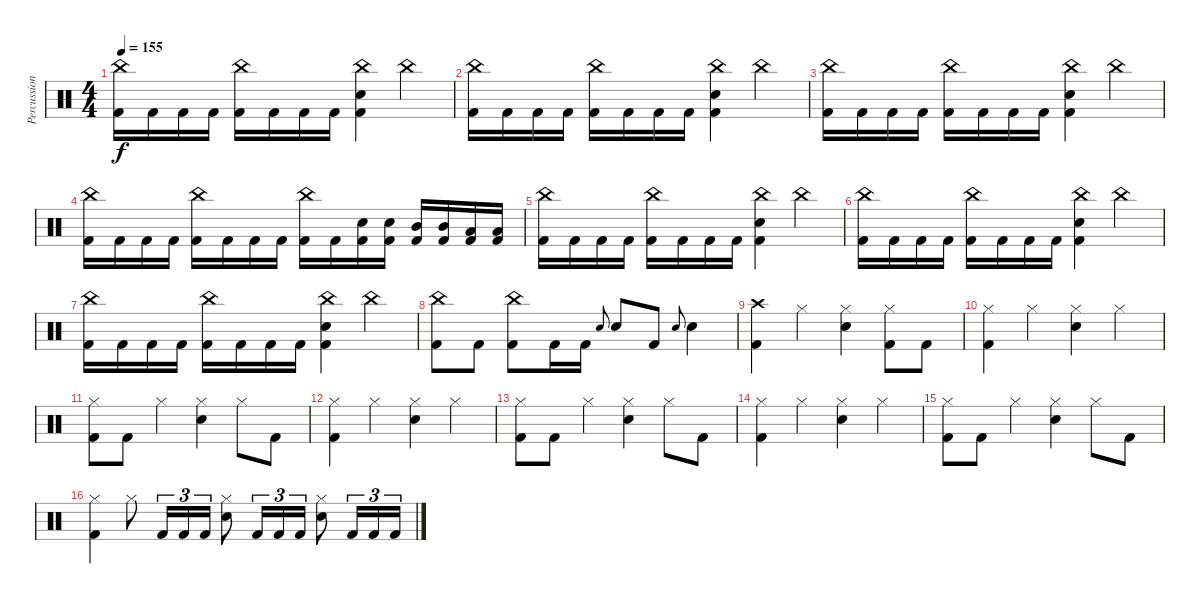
\track ("Percussion" "Percussion") {instrument percussion}
\staff {score}
\articulation defaults
\ts (4 4)
\tempo 155
\clef neutral
\ks c
("China (hit)" "Kick (hit) 2").16{dy f} "Kick (hit) 2".16 "Kick (hit) 2".16 "Kick (hit) 2".16 ("China (hit)" "Kick (hit) 2").16 "Kick (hit) 2".16 "Kick (hit) 2".16 "Kick (hit) 2".16 ("China (hit)" "Electric Snare (hit)" "Kick (hit) 2").4 "China (hit)".4 |
("China (hit)" "Kick (hit) 2").16 "Kick (hit) 2".16 "Kick (hit) 2".16 "Kick (hit) 2".16 ("China (hit)" "Kick (hit) 2").16 "Kick (hit) 2".16 "Kick (hit) 2".16 "Kick (hit) 2".16 ("China (hit)" "Electric Snare (hit)" "Kick (hit) 2").4 "China (hit)".4 |
("China (hit)" "Kick (hit) 2").16 "Kick (hit) 2".16 "Kick (hit) 2".16 "Kick (hit) 2".16 ("China (hit)" "Kick (hit) 2").16 "Kick (hit) 2".16 "Kick (hit) 2".16 "Kick (hit) 2".16 ("China (hit)" "Electric Snare (hit)" "Kick (hit) 2").4 "China (hit)".4 |
("China (hit)" "Kick (hit) 2").16 "Kick (hit) 2".16 "Kick (hit) 2".16 "Kick (hit) 2".16 ("China (hit)" "Kick (hit) 2").16 "Kick (hit) 2".16 "Kick (hit) 2".16 "Kick (hit) 2".16 ("China (hit)" "Kick (hit) 2").16 "Kick (hit) 2".16 ("Electric Snare (hit)" "Kick (hit) 2").16 ("Electric Snare (hit)" "Kick (hit) 2").16 ("Mid Tom (hit)" "Kick (hit) 2").16 ("Mid Tom (hit)" "Kick (hit) 2").16 ("Low Tom (hit)" "Kick (hit) 2").16 ("Low Tom (hit)" "Kick (hit) 2").16 |
("China (hit)" "Kick (hit) 2").16 "Kick (hit) 2".16 "Kick (hit) 2".16 "Kick (hit) 2".16 ("China (hit)" "Kick (hit) 2").16 "Kick (hit) 2".16 "Kick (hit) 2".16 "Kick (hit) 2".16 ("China (hit)" "Electric Snare (hit)" "Kick (hit) 2").4 "China (hit)".4 |
("China (hit)" "Kick (hit) 2").16 "Kick (hit) 2".16 "Kick (hit) 2".16 "Kick (hit) 2".16 ("China (hit)" "Kick (hit) 2").16 "Kick (hit) 2".16 "Kick (hit) 2".16 "Kick (hit) 2".16 ("China (hit)" "Electric Snare (hit)" "Kick (hit) 2").4 "China (hit)".4 |
("China (hit)" "Kick (hit) 2").16 "Kick (hit) 2".16 "Kick (hit) 2".16 "Kick (hit) 2".16 ("China (hit)" "Kick (hit) 2").16 "Kick (hit) 2".16 "Kick (hit) 2".16 "Kick (hit) 2".16 ("China (hit)" "Electric Snare (hit)" "Kick (hit) 2").4 "China (hit)".4 |
("China (hit)" "Kick (hit) 2").8 "Kick (hit) 2".8 ("China (hit)" "Kick (hit) 2").8 "Kick (hit) 2".16 "Kick (hit) 2".16 "Electric Snare (hit)".8{gr onbeat} "Electric Snare (hit)".8 "Kick (hit) 2".8 "Electric Snare (hit)".8{gr onbeat} "Electric Snare (hit)".4 |
("Crash high (hit)" "Kick (hit) 2").4 "Hi-Hat (closed)".4 ("Hi-Hat (closed)" "Electric Snare (hit)").4 ("Hi-Hat (closed)" "Kick (hit) 2").8 "Kick (hit) 2".8 |
("Hi-Hat (closed)" "Kick (hit) 2").4 "Hi-Hat (closed)".4 ("Hi-Hat (closed)" "Electric Snare (hit)").4 "Hi-Hat (closed)".4 |
("Hi-Hat (closed)" "Kick (hit) 2").8 "Kick (hit) 2".8 "Hi-Hat (closed)".4 ("Hi-Hat (closed)" "Electric Snare (hit)").4 "Hi-Hat (closed)".8 "Kick (hit) 2".8 |
("Hi-Hat (closed)" "Kick (hit) 2").4 "Hi-Hat (closed)".4 ("Hi-Hat (closed)" "Electric Snare (hit)").4 "Hi-Hat (closed)".4 |
("Hi-Hat (closed)" "Kick (hit) 2").8 "Kick (hit) 2".8 "Hi-Hat (closed)".4 ("Hi-Hat (closed)" "Electric Snare (hit)").4 "Hi-Hat (closed)".8 "Kick (hit) 2".8 |
("Hi-Hat (closed)" "Kick (hit) 2").4 "Hi-Hat (closed)".4 ("Hi-Hat (closed)" "Electric Snare (hit)").4 "Hi-Hat (closed)".4 |
("Hi-Hat (closed)" "Kick (hit) 2").8 "Kick (hit) 2".8 "Hi-Hat (closed)".4 ("Hi-Hat (closed)" "Electric Snare (hit)").4 "Hi-Hat (closed)".8 "Kick (hit) 2".8 |
("Hi-Hat (closed)" "Kick (hit) 2").4 "Hi-Hat (closed)".8 "Kick (hit) 2".16{tu (3 2)} "Kick (hit) 2".16{tu (3 2)} "Kick (hit) 2".16{tu (3 2)} ("Hi-Hat (closed)" "Electric Snare (hit)").8 "Kick (hit) 2".16{tu (3 2)} "Kick (hit) 2".16{tu (3 2)} "Kick (hit) 2".16{tu (3 2)} ("Hi-Hat (closed)" "Electric Snare (hit)").8 "Kick (hit) 2".16{tu (3 2)} "Kick (hit) 2".16{tu (3 2)} "Kick (hit) 2".16{tu (3 2)}
